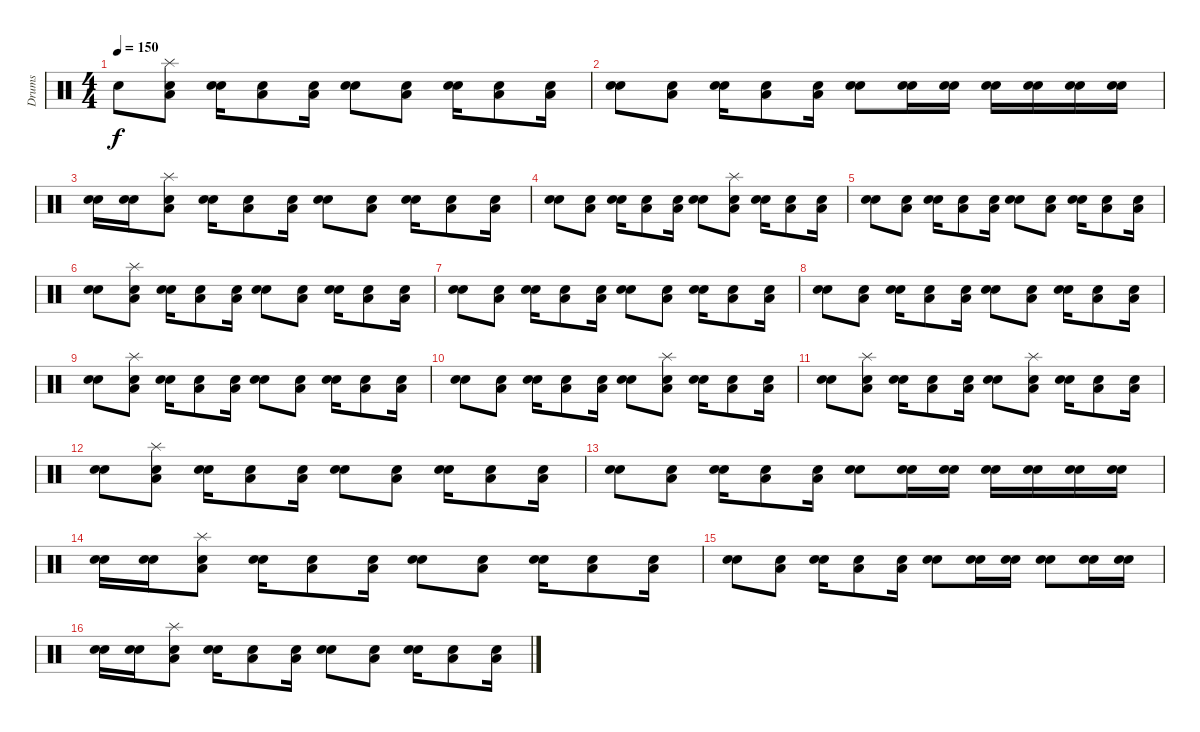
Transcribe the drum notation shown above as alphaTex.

\track ("Drums" "Drums") {instrument percussion}
\staff {score}
\articulation defaults
\ts (4 4)
\tempo 150
\clef neutral
\ks c "Electric Snare (hit)".8{dy f}
("Snare (hit)" "Low Floor Tom (hit)" "Splash (hit)").8 ("Snare (hit)" "Electric Snare (hit)").16 ("Snare (hit)" "Low Floor Tom (hit)").8 ("Snare (hit)" "Low Floor Tom (hit)").16 ("Snare (hit)" "Electric Snare (hit)").8 ("Snare (hit)" "Low Floor Tom (hit)").8 ("Snare (hit)" "Electric Snare (hit)").16 ("Snare (hit)" "Low Floor Tom (hit)").8 ("Snare (hit)" "Low Floor Tom (hit)").16 |
("Snare (hit)" "Electric Snare (hit)").8 ("Snare (hit)" "Low Floor Tom (hit)").8 ("Snare (hit)" "Electric Snare (hit)").16 ("Snare (hit)" "Low Floor Tom (hit)").8 ("Snare (hit)" "Low Floor Tom (hit)").16 ("Snare (hit)" "Electric Snare (hit)").8 ("Snare (hit)" "Electric Snare (hit)").16 ("Snare (hit)" "Electric Snare (hit)").16 ("Snare (hit)" "Electric Snare (hit)").16 ("Snare (hit)" "Electric Snare (hit)").16 ("Snare (hit)" "Electric Snare (hit)").16 ("Snare (hit)" "Electric Snare (hit)").16 |
("Snare (hit)" "Electric Snare (hit)").16 ("Snare (hit)" "Electric Snare (hit)").16 ("Snare (hit)" "Low Floor Tom (hit)" "Splash (hit)").8 ("Snare (hit)" "Electric Snare (hit)").16 ("Snare (hit)" "Low Floor Tom (hit)").8 ("Snare (hit)" "Low Floor Tom (hit)").16 ("Snare (hit)" "Electric Snare (hit)").8 ("Snare (hit)" "Low Floor Tom (hit)").8 ("Snare (hit)" "Electric Snare (hit)").16 ("Snare (hit)" "Low Floor Tom (hit)").8 ("Snare (hit)" "Low Floor Tom (hit)").16 |
("Snare (hit)" "Electric Snare (hit)").8 ("Snare (hit)" "Low Floor Tom (hit)").8 ("Snare (hit)" "Electric Snare (hit)").16 ("Snare (hit)" "Low Floor Tom (hit)").8 ("Snare (hit)" "Low Floor Tom (hit)").16 ("Snare (hit)" "Electric Snare (hit)").8 ("Snare (hit)" "Low Floor Tom (hit)" "Splash (hit)").8 ("Snare (hit)" "Electric Snare (hit)").16 ("Snare (hit)" "Low Floor Tom (hit)").8 ("Snare (hit)" "Low Floor Tom (hit)").16 |
("Snare (hit)" "Electric Snare (hit)").8 ("Snare (hit)" "Low Floor Tom (hit)").8 ("Snare (hit)" "Electric Snare (hit)").16 ("Snare (hit)" "Low Floor Tom (hit)").8 ("Snare (hit)" "Low Floor Tom (hit)").16 ("Snare (hit)" "Electric Snare (hit)").8 ("Snare (hit)" "Low Floor Tom (hit)").8 ("Snare (hit)" "Electric Snare (hit)").16 ("Snare (hit)" "Low Floor Tom (hit)").8 ("Snare (hit)" "Low Floor Tom (hit)").16 |
("Snare (hit)" "Electric Snare (hit)").8 ("Snare (hit)" "Low Floor Tom (hit)" "Splash (hit)").8 ("Snare (hit)" "Electric Snare (hit)").16 ("Snare (hit)" "Low Floor Tom (hit)").8 ("Snare (hit)" "Low Floor Tom (hit)").16 ("Snare (hit)" "Electric Snare (hit)").8 ("Snare (hit)" "Low Floor Tom (hit)").8 ("Snare (hit)" "Electric Snare (hit)").16 ("Snare (hit)" "Low Floor Tom (hit)").8 ("Snare (hit)" "Low Floor Tom (hit)").16 |
("Snare (hit)" "Electric Snare (hit)").8 ("Snare (hit)" "Low Floor Tom (hit)").8 ("Snare (hit)" "Electric Snare (hit)").16 ("Snare (hit)" "Low Floor Tom (hit)").8 ("Snare (hit)" "Low Floor Tom (hit)").16 ("Snare (hit)" "Electric Snare (hit)").8 ("Snare (hit)" "Low Floor Tom (hit)").8 ("Snare (hit)" "Electric Snare (hit)").16 ("Snare (hit)" "Low Floor Tom (hit)").8 ("Snare (hit)" "Low Floor Tom (hit)").16 |
("Snare (hit)" "Electric Snare (hit)").8 ("Snare (hit)" "Low Floor Tom (hit)").8 ("Snare (hit)" "Electric Snare (hit)").16 ("Snare (hit)" "Low Floor Tom (hit)").8 ("Snare (hit)" "Low Floor Tom (hit)").16 ("Snare (hit)" "Electric Snare (hit)").8 ("Snare (hit)" "Low Floor Tom (hit)").8 ("Snare (hit)" "Electric Snare (hit)").16 ("Snare (hit)" "Low Floor Tom (hit)").8 ("Snare (hit)" "Low Floor Tom (hit)").16 |
("Snare (hit)" "Electric Snare (hit)").8 ("Snare (hit)" "Low Floor Tom (hit)" "Splash (hit)").8 ("Snare (hit)" "Electric Snare (hit)").16 ("Snare (hit)" "Low Floor Tom (hit)").8 ("Snare (hit)" "Low Floor Tom (hit)").16 ("Snare (hit)" "Electric Snare (hit)").8 ("Snare (hit)" "Low Floor Tom (hit)").8 ("Snare (hit)" "Electric Snare (hit)").16 ("Snare (hit)" "Low Floor Tom (hit)").8 ("Snare (hit)" "Low Floor Tom (hit)").16 |
("Snare (hit)" "Electric Snare (hit)").8 ("Snare (hit)" "Low Floor Tom (hit)").8 ("Snare (hit)" "Electric Snare (hit)").16 ("Snare (hit)" "Low Floor Tom (hit)").8 ("Snare (hit)" "Low Floor Tom (hit)").16 ("Snare (hit)" "Electric Snare (hit)").8 ("Snare (hit)" "Low Floor Tom (hit)" "Splash (hit)").8 ("Snare (hit)" "Electric Snare (hit)").16 ("Snare (hit)" "Low Floor Tom (hit)").8 ("Snare (hit)" "Low Floor Tom (hit)").16 |
("Snare (hit)" "Electric Snare (hit)").8 ("Snare (hit)" "Low Floor Tom (hit)" "Splash (hit)").8 ("Snare (hit)" "Electric Snare (hit)").16 ("Snare (hit)" "Low Floor Tom (hit)").8 ("Snare (hit)" "Low Floor Tom (hit)").16 ("Snare (hit)" "Electric Snare (hit)").8 ("Snare (hit)" "Low Floor Tom (hit)" "Splash (hit)").8 ("Snare (hit)" "Electric Snare (hit)").16 ("Snare (hit)" "Low Floor Tom (hit)").8 ("Snare (hit)" "Low Floor Tom (hit)").16 |
("Snare (hit)" "Electric Snare (hit)").8 ("Snare (hit)" "Low Floor Tom (hit)" "Splash (hit)").8 ("Snare (hit)" "Electric Snare (hit)").16 ("Snare (hit)" "Low Floor Tom (hit)").8 ("Snare (hit)" "Low Floor Tom (hit)").16 ("Snare (hit)" "Electric Snare (hit)").8 ("Snare (hit)" "Low Floor Tom (hit)").8 ("Snare (hit)" "Electric Snare (hit)").16 ("Snare (hit)" "Low Floor Tom (hit)").8 ("Snare (hit)" "Low Floor Tom (hit)").16 |
("Snare (hit)" "Electric Snare (hit)").8 ("Snare (hit)" "Low Floor Tom (hit)").8 ("Snare (hit)" "Electric Snare (hit)").16 ("Snare (hit)" "Low Floor Tom (hit)").8 ("Snare (hit)" "Low Floor Tom (hit)").16 ("Snare (hit)" "Electric Snare (hit)").8 ("Snare (hit)" "Electric Snare (hit)").16 ("Snare (hit)" "Electric Snare (hit)").16 ("Snare (hit)" "Electric Snare (hit)").16 ("Snare (hit)" "Electric Snare (hit)").16 ("Snare (hit)" "Electric Snare (hit)").16 ("Snare (hit)" "Electric Snare (hit)").16 |
("Snare (hit)" "Electric Snare (hit)").16 ("Snare (hit)" "Electric Snare (hit)").16 ("Snare (hit)" "Low Floor Tom (hit)" "Splash (hit)").8 ("Snare (hit)" "Electric Snare (hit)").16 ("Snare (hit)" "Low Floor Tom (hit)").8 ("Snare (hit)" "Low Floor Tom (hit)").16 ("Snare (hit)" "Electric Snare (hit)").8 ("Snare (hit)" "Low Floor Tom (hit)").8 ("Snare (hit)" "Electric Snare (hit)").16 ("Snare (hit)" "Low Floor Tom (hit)").8 ("Snare (hit)" "Low Floor Tom (hit)").16 |
("Snare (hit)" "Electric Snare (hit)").8 ("Snare (hit)" "Low Floor Tom (hit)").8 ("Snare (hit)" "Electric Snare (hit)").16 ("Snare (hit)" "Low Floor Tom (hit)").8 ("Snare (hit)" "Low Floor Tom (hit)").16 ("Snare (hit)" "Electric Snare (hit)").8 ("Snare (hit)" "Electric Snare (hit)").16 ("Snare (hit)" "Electric Snare (hit)").16 ("Snare (hit)" "Electric Snare (hit)").8 ("Snare (hit)" "Electric Snare (hit)").16 ("Snare (hit)" "Electric Snare (hit)").16 |
("Snare (hit)" "Electric Snare (hit)").16 ("Snare (hit)" "Electric Snare (hit)").16 ("Snare (hit)" "Low Floor Tom (hit)" "Splash (hit)").8 ("Snare (hit)" "Electric Snare (hit)").16 ("Snare (hit)" "Low Floor Tom (hit)").8 ("Snare (hit)" "Low Floor Tom (hit)").16 ("Snare (hit)" "Electric Snare (hit)").8 ("Snare (hit)" "Low Floor Tom (hit)").8 ("Snare (hit)" "Electric Snare (hit)").16 ("Snare (hit)" "Low Floor Tom (hit)").8 ("Snare (hit)" "Low Floor Tom (hit)").16
